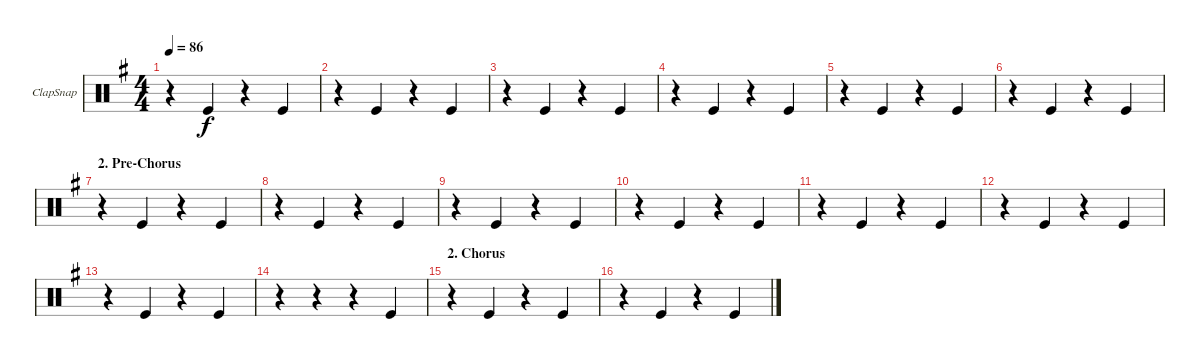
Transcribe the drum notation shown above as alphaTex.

\defaultSystemsLayout 4
\bracketExtendMode groupsimilarinstruments
\firstSystemTrackNameOrientation horizontal
\otherSystemsTrackNameOrientation horizontal
\track ("hand clap / snap" "ClapSnap") {instrument percussion}
\staff {score}
\articulation defaults
\ts (4 4)
\tempo 86
\clef neutral
\ks g
r.4{dy f} "Kick (hit)".4 r.4 "Kick (hit)".4 |
r.4 "Kick (hit)".4 r.4 "Kick (hit)".4 |
r.4 "Kick (hit)".4 r.4 "Kick (hit)".4 |
r.4 "Kick (hit)".4 r.4 "Kick (hit)".4 |
r.4 "Kick (hit)".4 r.4 "Kick (hit)".4 |
r.4 "Kick (hit)".4 r.4 "Kick (hit)".4 |
\section ("" "2. Pre-Chorus")
r.4 "Kick (hit)".4 r.4 "Kick (hit)".4 |
r.4 "Kick (hit)".4 r.4 "Kick (hit)".4 |
r.4 "Kick (hit)".4 r.4 "Kick (hit)".4 |
r.4 "Kick (hit)".4 r.4 "Kick (hit)".4 |
r.4 "Kick (hit)".4 r.4 "Kick (hit)".4 |
r.4 "Kick (hit)".4 r.4 "Kick (hit)".4 |
r.4 "Kick (hit)".4 r.4 "Kick (hit)".4 |
r.4 r.4 r.4 "Kick (hit)".4 |
\section ("" "2. Chorus")
r.4 "Kick (hit)".4 r.4 "Kick (hit)".4 |
r.4 "Kick (hit)".4 r.4 "Kick (hit)".4
